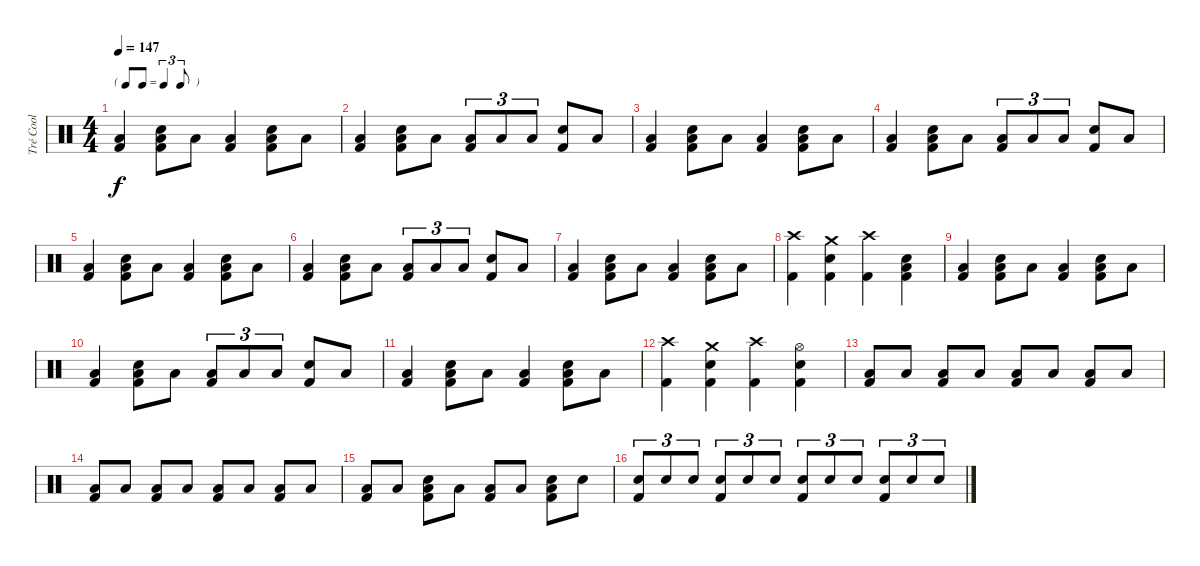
\track ("Tré Cool" "Tré Cool") {instrument percussion}
\staff {score}
\articulation defaults
\ts (4 4)
\tf triplet8th
\tempo 147
\clef neutral
\ks c
("Low Tom (hit)" "Kick (hit) 2").4{dy f} ("Snare (hit) 2" "Low Tom (hit)" "Kick (hit) 2").8 "Low Tom (hit)".8 ("Low Tom (hit)" "Kick (hit) 2").4 ("Snare (hit) 2" "Low Tom (hit)" "Kick (hit) 2").8 "Low Tom (hit)".8 |
("Low Tom (hit)" "Kick (hit) 2").4 ("Snare (hit) 2" "Low Tom (hit)" "Kick (hit) 2").8 "Low Tom (hit)".8 ("Low Tom (hit)" "Kick (hit) 2").8{tu (3 2)} "Low Tom (hit)".8{tu (3 2)} "Low Tom (hit)".8{tu (3 2)} ("Snare (hit) 2" "Kick (hit) 2").8 "Low Tom (hit)".8 |
("Low Tom (hit)" "Kick (hit) 2").4 ("Snare (hit) 2" "Low Tom (hit)" "Kick (hit) 2").8 "Low Tom (hit)".8 ("Low Tom (hit)" "Kick (hit) 2").4 ("Snare (hit) 2" "Low Tom (hit)" "Kick (hit) 2").8 "Low Tom (hit)".8 |
("Low Tom (hit)" "Kick (hit) 2").4 ("Snare (hit) 2" "Low Tom (hit)" "Kick (hit) 2").8 "Low Tom (hit)".8 ("Low Tom (hit)" "Kick (hit) 2").8{tu (3 2)} "Low Tom (hit)".8{tu (3 2)} "Low Tom (hit)".8{tu (3 2)} ("Snare (hit) 2" "Kick (hit) 2").8 "Low Tom (hit)".8 |
("Low Tom (hit)" "Kick (hit) 2").4 ("Snare (hit) 2" "Low Tom (hit)" "Kick (hit) 2").8 "Low Tom (hit)".8 ("Low Tom (hit)" "Kick (hit) 2").4 ("Snare (hit) 2" "Low Tom (hit)" "Kick (hit) 2").8 "Low Tom (hit)".8 |
("Low Tom (hit)" "Kick (hit) 2").4 ("Snare (hit) 2" "Low Tom (hit)" "Kick (hit) 2").8 "Low Tom (hit)".8 ("Low Tom (hit)" "Kick (hit) 2").8{tu (3 2)} "Low Tom (hit)".8{tu (3 2)} "Low Tom (hit)".8{tu (3 2)} ("Snare (hit) 2" "Kick (hit) 2").8 "Low Tom (hit)".8 |
("Low Tom (hit)" "Kick (hit) 2").4 ("Snare (hit) 2" "Low Tom (hit)" "Kick (hit) 2").8 "Low Tom (hit)".8 ("Low Tom (hit)" "Kick (hit) 2").4 ("Snare (hit) 2" "Low Tom (hit)" "Kick (hit) 2").8 "Low Tom (hit)".8 |
("Crash high (hit)" "Kick (hit) 2").4 ("Crash medium (hit)" "Snare (hit) 2" "Kick (hit) 2").4 ("Crash high (hit)" "Kick (hit) 2").4 ("Snare (hit) 2" "Low Tom (hit)" "Kick (hit) 2").4 |
("Low Tom (hit)" "Kick (hit) 2").4 ("Snare (hit) 2" "Low Tom (hit)" "Kick (hit) 2").8 "Low Tom (hit)".8 ("Low Tom (hit)" "Kick (hit) 2").4 ("Snare (hit) 2" "Low Tom (hit)" "Kick (hit) 2").8 "Low Tom (hit)".8 |
("Low Tom (hit)" "Kick (hit) 2").4 ("Snare (hit) 2" "Low Tom (hit)" "Kick (hit) 2").8 "Low Tom (hit)".8 ("Low Tom (hit)" "Kick (hit) 2").8{tu (3 2)} "Low Tom (hit)".8{tu (3 2)} "Low Tom (hit)".8{tu (3 2)} ("Snare (hit) 2" "Kick (hit) 2").8 "Low Tom (hit)".8 |
("Low Tom (hit)" "Kick (hit) 2").4 ("Snare (hit) 2" "Low Tom (hit)" "Kick (hit) 2").8 "Low Tom (hit)".8 ("Low Tom (hit)" "Kick (hit) 2").4 ("Snare (hit) 2" "Low Tom (hit)" "Kick (hit) 2").8 "Low Tom (hit)".8 |
("Crash high (hit)" "Kick (hit) 2").4 ("Crash medium (hit)" "Snare (hit) 2" "Kick (hit) 2").4 ("Crash high (hit)" "Kick (hit) 2").4 ("Hi-Hat (open)" "Snare (hit) 2" "Kick (hit) 2").4 |
("Low Tom (hit)" "Kick (hit) 2").8 "Low Tom (hit)".8 ("Low Tom (hit)" "Kick (hit) 2").8 "Low Tom (hit)".8 ("Low Tom (hit)" "Kick (hit) 2").8 "Low Tom (hit)".8 ("Low Tom (hit)" "Kick (hit) 2").8 "Low Tom (hit)".8 |
("Low Tom (hit)" "Kick (hit) 2").8 "Low Tom (hit)".8 ("Low Tom (hit)" "Kick (hit) 2").8 "Low Tom (hit)".8 ("Low Tom (hit)" "Kick (hit) 2").8 "Low Tom (hit)".8 ("Low Tom (hit)" "Kick (hit) 2").8 "Low Tom (hit)".8 |
("Low Tom (hit)" "Kick (hit) 2").8 "Low Tom (hit)".8 ("Snare (hit) 2" "Low Tom (hit)" "Kick (hit) 2").8 "Low Tom (hit)".8 ("Low Tom (hit)" "Kick (hit) 2").8 "Low Tom (hit)".8 ("Snare (hit) 2" "Low Tom (hit)" "Kick (hit) 2").8 "Snare (hit) 2".8 |
("Snare (hit) 2" "Kick (hit) 2").8{tu (3 2)} "Snare (hit) 2".8{tu (3 2)} "Snare (hit) 2".8{tu (3 2)} ("Snare (hit) 2" "Kick (hit) 2").8{tu (3 2)} "Snare (hit) 2".8{tu (3 2)} "Snare (hit) 2".8{tu (3 2)} ("Snare (hit) 2" "Kick (hit) 2").8{tu (3 2)} "Snare (hit) 2".8{tu (3 2)} "Snare (hit) 2".8{tu (3 2)} ("Snare (hit) 2" "Kick (hit) 2").8{tu (3 2)} "Snare (hit) 2".8{tu (3 2)} "Snare (hit) 2".8{tu (3 2)}
